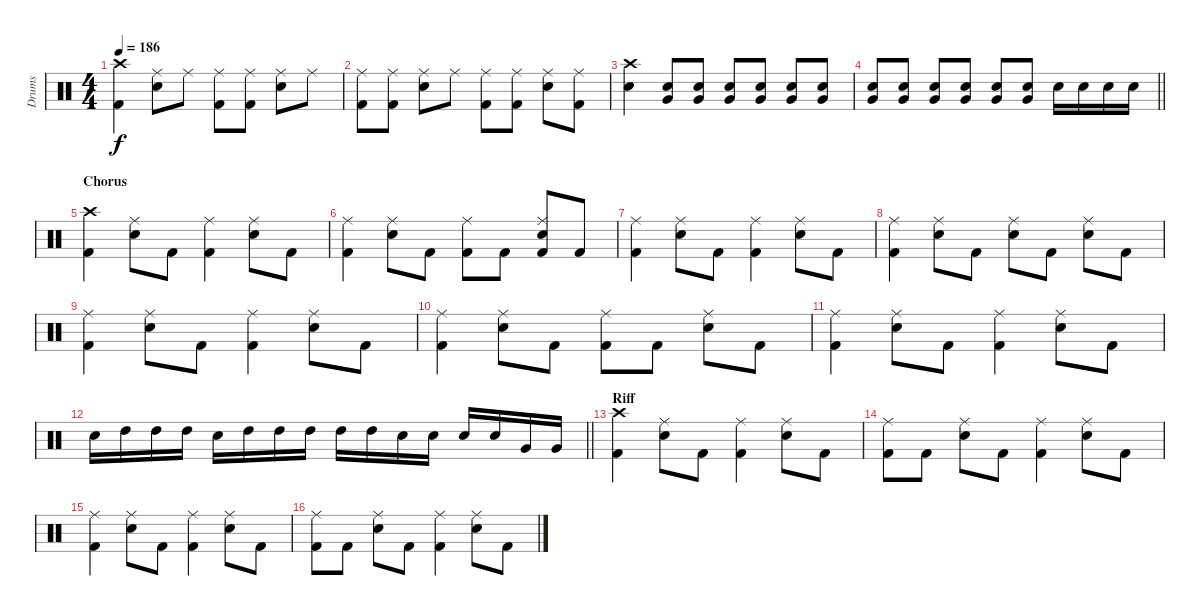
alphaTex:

\track ("Drums" "Drums") {instrument percussion}
\staff {score}
\articulation defaults
\ts (4 4)
\tempo 186
\clef neutral
\ks c
("Crash high (hit)" "Kick (hit) 2").4{dy f} ("Ride (middle)" "Snare (hit) 2").8 "Ride (middle)".8 ("Ride (middle)" "Kick (hit) 2").8 ("Ride (middle)" "Kick (hit) 2").8 ("Ride (middle)" "Snare (hit) 2").8 "Ride (middle)".8 |
("Ride (middle)" "Kick (hit) 2").8 ("Ride (middle)" "Kick (hit) 2").8 ("Ride (middle)" "Snare (hit) 2").8 "Ride (middle)".8 ("Ride (middle)" "Kick (hit) 2").8 ("Ride (middle)" "Kick (hit) 2").8 ("Ride (middle)" "Snare (hit) 2").8 ("Ride (middle)" "Kick (hit) 2").8 |
("Crash high (hit)" "Snare (hit) 2").4 ("Snare (hit) 2" "Very Low Tom (hit)").8{volume 16} ("Snare (hit) 2" "Very Low Tom (hit)").8 ("Snare (hit) 2" "Very Low Tom (hit)").8 ("Snare (hit) 2" "Very Low Tom (hit)").8 ("Snare (hit) 2" "Very Low Tom (hit)").8 ("Snare (hit) 2" "Very Low Tom (hit)").8 |
\barLineRight lightlight
("Snare (hit) 2" "Very Low Tom (hit)").8 ("Snare (hit) 2" "Very Low Tom (hit)").8 ("Snare (hit) 2" "Very Low Tom (hit)").8 ("Snare (hit) 2" "Very Low Tom (hit)").8 ("Snare (hit) 2" "Very Low Tom (hit)").8 ("Snare (hit) 2" "Very Low Tom (hit)").8 "Snare (hit) 2".16 "Snare (hit) 2".16 "Snare (hit) 2".16 "Snare (hit) 2".16 |
\section ("" "Chorus")
("Crash high (hit)" "Kick (hit) 2").4{volume 13} ("Ride (middle)" "Snare (hit) 2").8 "Kick (hit) 2".8 ("Ride (middle)" "Kick (hit) 2").4 ("Ride (middle)" "Snare (hit) 2").8 "Kick (hit) 2".8 |
("Ride (middle)" "Kick (hit) 2").4 ("Ride (middle)" "Snare (hit) 2").8 "Kick (hit) 2".8 ("Ride (middle)" "Kick (hit) 2").8 "Kick (hit) 2".8 ("Ride (middle)" "Snare (hit) 2" "Kick (hit) 2").8 "Kick (hit) 2".8 |
("Ride (middle)" "Kick (hit) 2").4 ("Ride (middle)" "Snare (hit) 2").8 "Kick (hit) 2".8 ("Ride (middle)" "Kick (hit) 2").4 ("Ride (middle)" "Snare (hit) 2").8 "Kick (hit) 2".8 |
("Ride (middle)" "Kick (hit) 2").4 ("Ride (middle)" "Snare (hit) 2").8 "Kick (hit) 2".8 ("Ride (middle)" "Snare (hit) 2").8 "Kick (hit) 2".8 ("Ride (middle)" "Snare (hit) 2").8 "Kick (hit) 2".8 |
("Ride (middle)" "Kick (hit) 2").4 ("Ride (middle)" "Snare (hit) 2").8 "Kick (hit) 2".8 ("Ride (middle)" "Kick (hit) 2").4 ("Ride (middle)" "Snare (hit) 2").8 "Kick (hit) 2".8 |
("Ride (middle)" "Kick (hit) 2").4 ("Ride (middle)" "Snare (hit) 2").8 "Kick (hit) 2".8 ("Ride (middle)" "Kick (hit) 2").8 "Kick (hit) 2".8 ("Ride (middle)" "Snare (hit) 2").8 "Kick (hit) 2".8 |
("Ride (middle)" "Kick (hit) 2").4 ("Ride (middle)" "Snare (hit) 2").8 "Kick (hit) 2".8 ("Ride (middle)" "Kick (hit) 2").4 ("Ride (middle)" "Snare (hit) 2").8 "Kick (hit) 2".8 |
\barLineRight lightlight "Snare (hit) 2".16 "High Tom (hit)".16 "High Tom (hit)".16 "High Tom (hit)".16 "Snare (hit) 2".16 "High Tom (hit)".16 "High Tom (hit)".16 "High Tom (hit)".16 "High Tom (hit)".16 "High Tom (hit)".16 "Snare (hit) 2".16 "Snare (hit) 2".16 "Snare (hit) 2".16 "Snare (hit) 2".16 "Very Low Tom (hit)".16 "Very Low Tom (hit)".16
|
\section ("" "Riff")
("Crash high (hit)" "Kick (hit) 2").4 ("Ride (middle)" "Snare (hit) 2").8 "Kick (hit) 2".8 ("Ride (middle)" "Kick (hit) 2").4 ("Ride (middle)" "Snare (hit) 2").8 "Kick (hit) 2".8 |
("Ride (middle)" "Kick (hit) 2").8 "Kick (hit) 2".8 ("Ride (middle)" "Snare (hit) 2").8 "Kick (hit) 2".8 ("Ride (middle)" "Kick (hit) 2").4 ("Ride (middle)" "Snare (hit) 2").8 "Kick (hit) 2".8 |
("Ride (middle)" "Kick (hit) 2").4 ("Ride (middle)" "Snare (hit) 2").8 "Kick (hit) 2".8 ("Ride (middle)" "Kick (hit) 2").4 ("Ride (middle)" "Snare (hit) 2").8 "Kick (hit) 2".8 |
("Ride (middle)" "Kick (hit) 2").8 "Kick (hit) 2".8 ("Ride (middle)" "Snare (hit) 2").8 "Kick (hit) 2".8 ("Ride (middle)" "Kick (hit) 2").4 ("Ride (middle)" "Snare (hit) 2").8 "Kick (hit) 2".8
